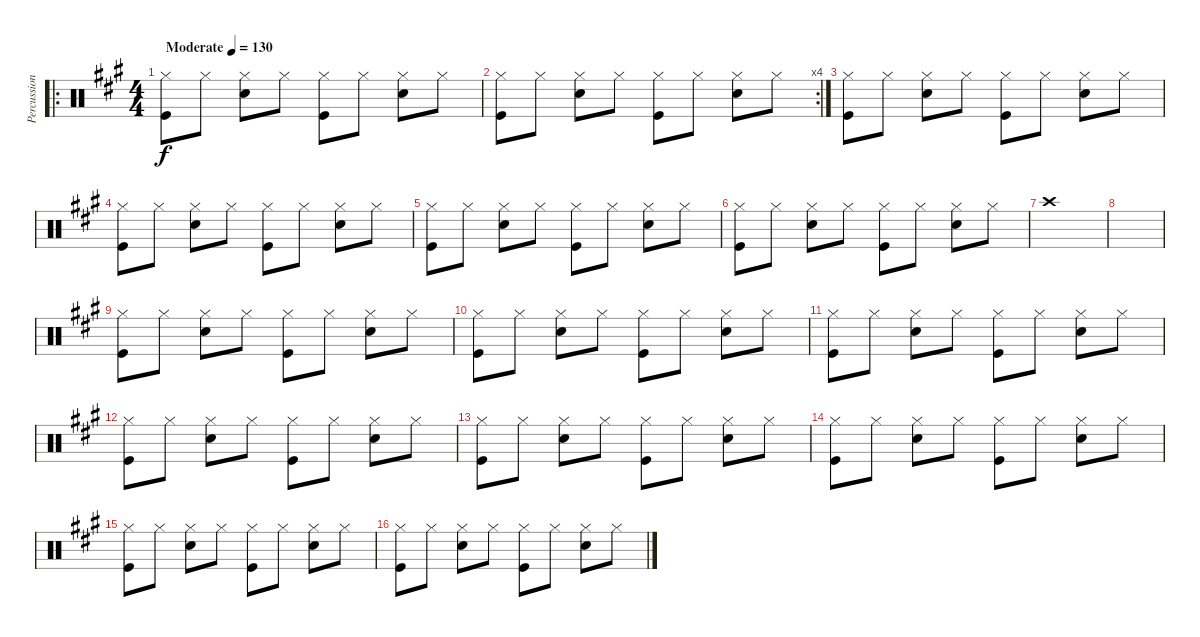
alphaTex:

\track ("Percussion" "Percussion") {instrument percussion}
\staff {score}
\articulation defaults
\ro
\ts (4 4)
\tempo (130 "Moderate")
\clef neutral
\ks a
("Hi-Hat (closed)" "Kick (hit)").8{dy f} "Hi-Hat (closed)".8 ("Hi-Hat (closed)" "Snare (hit) 2").8 "Hi-Hat (closed)".8 ("Hi-Hat (closed)" "Kick (hit)").8 "Hi-Hat (closed)".8 ("Hi-Hat (closed)" "Snare (hit) 2").8 "Hi-Hat (closed)".8 |
\rc 4
("Hi-Hat (closed)" "Kick (hit)").8 "Hi-Hat (closed)".8 ("Hi-Hat (closed)" "Snare (hit) 2").8 "Hi-Hat (closed)".8 ("Hi-Hat (closed)" "Kick (hit)").8 "Hi-Hat (closed)".8 ("Hi-Hat (closed)" "Snare (hit) 2").8 "Hi-Hat (closed)".8 |
("Hi-Hat (closed)" "Kick (hit)").8 "Hi-Hat (closed)".8 ("Hi-Hat (closed)" "Snare (hit) 2").8 "Hi-Hat (closed)".8 ("Hi-Hat (closed)" "Kick (hit)").8 "Hi-Hat (closed)".8 ("Hi-Hat (closed)" "Snare (hit) 2").8 "Hi-Hat (closed)".8 |
("Hi-Hat (closed)" "Kick (hit)").8 "Hi-Hat (closed)".8 ("Hi-Hat (closed)" "Snare (hit) 2").8 "Hi-Hat (closed)".8 ("Hi-Hat (closed)" "Kick (hit)").8 "Hi-Hat (closed)".8 ("Hi-Hat (closed)" "Snare (hit) 2").8 "Hi-Hat (closed)".8 |
("Hi-Hat (closed)" "Kick (hit)").8 "Hi-Hat (closed)".8 ("Hi-Hat (closed)" "Snare (hit) 2").8 "Hi-Hat (closed)".8 ("Hi-Hat (closed)" "Kick (hit)").8 "Hi-Hat (closed)".8 ("Hi-Hat (closed)" "Snare (hit) 2").8 "Hi-Hat (closed)".8 |
("Hi-Hat (closed)" "Kick (hit)").8 "Hi-Hat (closed)".8 ("Hi-Hat (closed)" "Snare (hit) 2").8 "Hi-Hat (closed)".8 ("Hi-Hat (closed)" "Kick (hit)").8 "Hi-Hat (closed)".8 ("Hi-Hat (closed)" "Snare (hit) 2").8 "Hi-Hat (closed)".8 |
"Crash high (hit)".1 |
|
("Hi-Hat (closed)" "Kick (hit)").8 "Hi-Hat (closed)".8 ("Hi-Hat (closed)" "Snare (hit) 2").8 "Hi-Hat (closed)".8 ("Hi-Hat (closed)" "Kick (hit)").8 "Hi-Hat (closed)".8 ("Hi-Hat (closed)" "Snare (hit) 2").8 "Hi-Hat (closed)".8 |
("Hi-Hat (closed)" "Kick (hit)").8 "Hi-Hat (closed)".8 ("Hi-Hat (closed)" "Snare (hit) 2").8 "Hi-Hat (closed)".8 ("Hi-Hat (closed)" "Kick (hit)").8 "Hi-Hat (closed)".8 ("Hi-Hat (closed)" "Snare (hit) 2").8 "Hi-Hat (closed)".8 |
("Hi-Hat (closed)" "Kick (hit)").8 "Hi-Hat (closed)".8 ("Hi-Hat (closed)" "Snare (hit) 2").8 "Hi-Hat (closed)".8 ("Hi-Hat (closed)" "Kick (hit)").8 "Hi-Hat (closed)".8 ("Hi-Hat (closed)" "Snare (hit) 2").8 "Hi-Hat (closed)".8 |
("Hi-Hat (closed)" "Kick (hit)").8 "Hi-Hat (closed)".8 ("Hi-Hat (closed)" "Snare (hit) 2").8 "Hi-Hat (closed)".8 ("Hi-Hat (closed)" "Kick (hit)").8 "Hi-Hat (closed)".8 ("Hi-Hat (closed)" "Snare (hit) 2").8 "Hi-Hat (closed)".8 |
("Hi-Hat (closed)" "Kick (hit)").8 "Hi-Hat (closed)".8 ("Hi-Hat (closed)" "Snare (hit) 2").8 "Hi-Hat (closed)".8 ("Hi-Hat (closed)" "Kick (hit)").8 "Hi-Hat (closed)".8 ("Hi-Hat (closed)" "Snare (hit) 2").8 "Hi-Hat (closed)".8 |
("Hi-Hat (closed)" "Kick (hit)").8 "Hi-Hat (closed)".8 ("Hi-Hat (closed)" "Snare (hit) 2").8 "Hi-Hat (closed)".8 ("Hi-Hat (closed)" "Kick (hit)").8 "Hi-Hat (closed)".8 ("Hi-Hat (closed)" "Snare (hit) 2").8 "Hi-Hat (closed)".8 |
("Hi-Hat (closed)" "Kick (hit)").8 "Hi-Hat (closed)".8 ("Hi-Hat (closed)" "Snare (hit) 2").8 "Hi-Hat (closed)".8 ("Hi-Hat (closed)" "Kick (hit)").8 "Hi-Hat (closed)".8 ("Hi-Hat (closed)" "Snare (hit) 2").8 "Hi-Hat (closed)".8 |
("Hi-Hat (closed)" "Kick (hit)").8 "Hi-Hat (closed)".8 ("Hi-Hat (closed)" "Snare (hit) 2").8 "Hi-Hat (closed)".8 ("Hi-Hat (closed)" "Kick (hit)").8 "Hi-Hat (closed)".8 ("Hi-Hat (closed)" "Snare (hit) 2").8 "Hi-Hat (closed)".8
